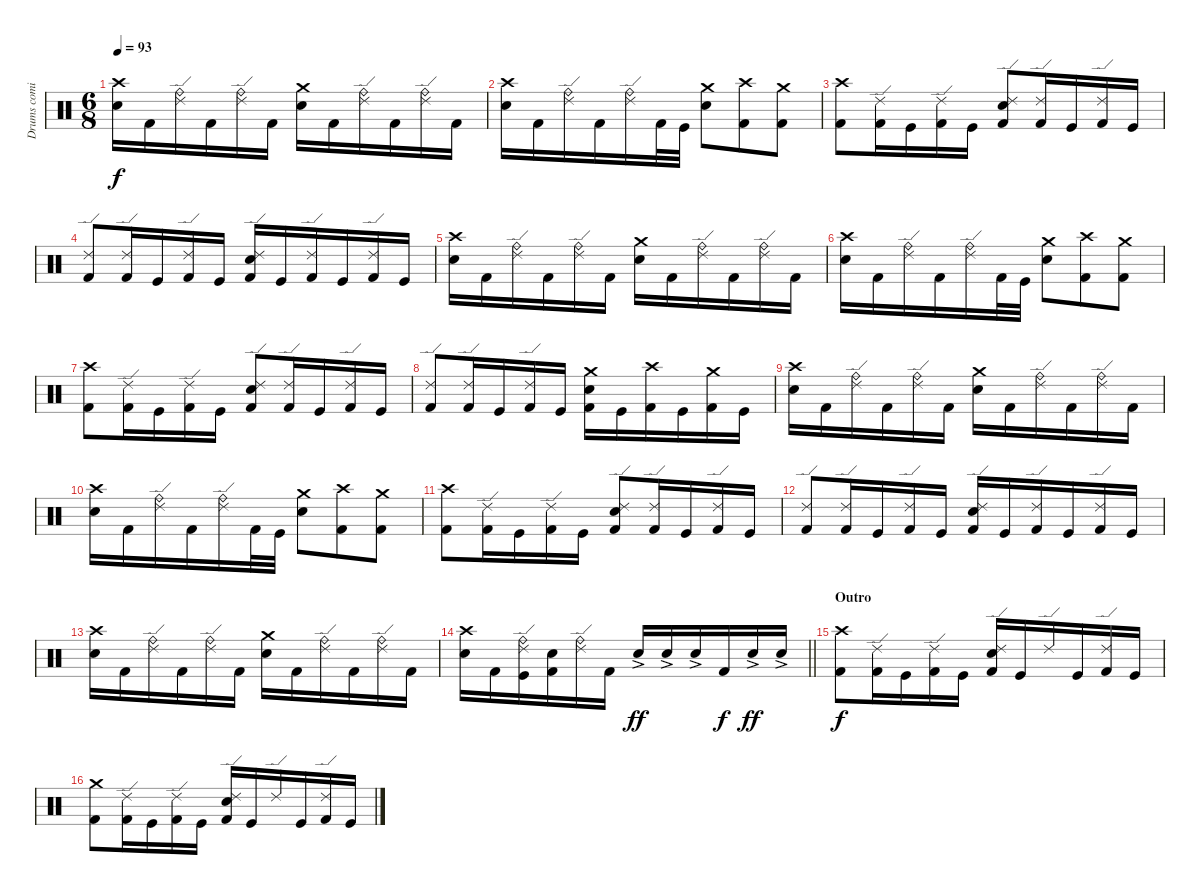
\track ("Drums coming soon" "Drums comi") {instrument percussion}
\staff {score}
\articulation defaults
\ts (6 8)
\tempo 93
\clef neutral
\ks c
("Crash high (hit)" "Snare (hit) 2").16{dy f} "Kick (hit) 2".16 ("Ride (edge) 2" "Ride (bell)").16 "Kick (hit) 2".16 ("Ride (edge) 2" "Ride (bell)").16 "Kick (hit) 2".16 ("Crash medium (hit)" "Snare (hit) 2").16 "Kick (hit) 2".16 ("Ride (edge) 2" "Ride (bell)").16 "Kick (hit) 2".16 ("Ride (edge) 2" "Ride (bell)").16 "Kick (hit) 2".16 |
("Crash high (hit)" "Snare (hit) 2").16 "Kick (hit) 2".16 ("Ride (edge) 2" "Ride (bell)").16 "Kick (hit) 2".16 ("Ride (edge) 2" "Ride (bell)").16 "Kick (hit) 2".32 "Kick (hit)".32 ("Crash medium (hit)" "Snare (hit) 2").8 ("Crash high (hit)" "Kick (hit) 2").8 ("Crash medium (hit)" "Kick (hit) 2").8 |
("Crash high (hit)" "Kick (hit) 2").8 ("Ride (edge) 2" "Kick (hit) 2").16 "Kick (hit)".16 ("Ride (edge) 2" "Kick (hit) 2").16 "Kick (hit)".16 ("Ride (edge) 2" "Snare (hit) 2" "Kick (hit) 2").8 ("Ride (edge) 2" "Kick (hit) 2").16 "Kick (hit)".16 ("Ride (edge) 2" "Kick (hit) 2").16 "Kick (hit)".16 |
("Ride (edge) 2" "Kick (hit) 2").8 ("Ride (edge) 2" "Kick (hit) 2").16 "Kick (hit)".16 ("Ride (edge) 2" "Kick (hit) 2").16 "Kick (hit)".16 ("Ride (edge) 2" "Snare (hit) 2" "Kick (hit) 2").16 "Kick (hit)".16 ("Ride (edge) 2" "Kick (hit) 2").16 "Kick (hit)".16 ("Ride (edge) 2" "Kick (hit) 2").16 "Kick (hit)".16 |
("Crash high (hit)" "Snare (hit) 2").16 "Kick (hit) 2".16 ("Ride (edge) 2" "Ride (bell)").16 "Kick (hit) 2".16 ("Ride (edge) 2" "Ride (bell)").16 "Kick (hit) 2".16 ("Crash medium (hit)" "Snare (hit) 2").16 "Kick (hit) 2".16 ("Ride (edge) 2" "Ride (bell)").16 "Kick (hit) 2".16 ("Ride (edge) 2" "Ride (bell)").16 "Kick (hit) 2".16 |
("Crash high (hit)" "Snare (hit) 2").16 "Kick (hit) 2".16 ("Ride (edge) 2" "Ride (bell)").16 "Kick (hit) 2".16 ("Ride (edge) 2" "Ride (bell)").16 "Kick (hit) 2".32 "Kick (hit)".32 ("Crash medium (hit)" "Snare (hit) 2").8 ("Crash high (hit)" "Kick (hit) 2").8 ("Crash medium (hit)" "Kick (hit) 2").8 |
("Crash high (hit)" "Kick (hit) 2").8 ("Ride (edge) 2" "Kick (hit) 2").16 "Kick (hit)".16 ("Ride (edge) 2" "Kick (hit) 2").16 "Kick (hit)".16 ("Ride (edge) 2" "Snare (hit) 2" "Kick (hit) 2").8 ("Ride (edge) 2" "Kick (hit) 2").16 "Kick (hit)".16 ("Ride (edge) 2" "Kick (hit) 2").16 "Kick (hit)".16 |
("Ride (edge) 2" "Kick (hit) 2").8 ("Ride (edge) 2" "Kick (hit) 2").16 "Kick (hit)".16 ("Ride (edge) 2" "Kick (hit) 2").16 "Kick (hit)".16 ("Crash medium (hit)" "Snare (hit) 2" "Kick (hit) 2").16 "Kick (hit)".16 ("Crash high (hit)" "Kick (hit) 2").16 "Kick (hit)".16 ("Crash medium (hit)" "Kick (hit) 2").16 "Kick (hit)".16 |
("Crash high (hit)" "Snare (hit) 2").16 "Kick (hit) 2".16 ("Ride (edge) 2" "Ride (bell)").16 "Kick (hit) 2".16 ("Ride (edge) 2" "Ride (bell)").16 "Kick (hit) 2".16 ("Crash medium (hit)" "Snare (hit) 2").16 "Kick (hit) 2".16 ("Ride (edge) 2" "Ride (bell)").16 "Kick (hit) 2".16 ("Ride (edge) 2" "Ride (bell)").16 "Kick (hit) 2".16 |
("Crash high (hit)" "Snare (hit) 2").16 "Kick (hit) 2".16 ("Ride (edge) 2" "Ride (bell)").16 "Kick (hit) 2".16 ("Ride (edge) 2" "Ride (bell)").16 "Kick (hit) 2".32 "Kick (hit)".32 ("Crash medium (hit)" "Snare (hit) 2").8 ("Crash high (hit)" "Kick (hit) 2").8 ("Crash medium (hit)" "Kick (hit) 2").8 |
("Crash high (hit)" "Kick (hit) 2").8 ("Ride (edge) 2" "Kick (hit) 2").16 "Kick (hit)".16 ("Ride (edge) 2" "Kick (hit) 2").16 "Kick (hit)".16 ("Ride (edge) 2" "Snare (hit) 2" "Kick (hit) 2").8 ("Ride (edge) 2" "Kick (hit) 2").16 "Kick (hit)".16 ("Ride (edge) 2" "Kick (hit) 2").16 "Kick (hit)".16 |
("Ride (edge) 2" "Kick (hit) 2").8 ("Ride (edge) 2" "Kick (hit) 2").16 "Kick (hit)".16 ("Ride (edge) 2" "Kick (hit) 2").16 "Kick (hit)".16 ("Ride (edge) 2" "Snare (hit) 2" "Kick (hit) 2").16 "Kick (hit)".16 ("Ride (edge) 2" "Kick (hit) 2").16 "Kick (hit)".16 ("Ride (edge) 2" "Kick (hit) 2").16 "Kick (hit)".16 |
("Crash high (hit)" "Snare (hit) 2").16 "Kick (hit) 2".16 ("Ride (edge) 2" "Ride (bell)").16 "Kick (hit) 2".16 ("Ride (edge) 2" "Ride (bell)").16 "Kick (hit) 2".16 ("Crash medium (hit)" "Snare (hit) 2").16 "Kick (hit) 2".16 ("Ride (edge) 2" "Ride (bell)").16 "Kick (hit) 2".16 ("Ride (edge) 2" "Ride (bell)").16 "Kick (hit) 2".16 |
\barLineRight lightlight
("Crash high (hit)" "Snare (hit) 2").16 "Kick (hit) 2".16 ("Ride (edge) 2" "Ride (bell)" "Kick (hit)").16 ("Snare (hit) 2" "Kick (hit) 2").16 ("Ride (edge) 2" "Ride (bell)").16 "Kick (hit) 2".16 "Snare (hit) 2"{ac}.16{dy ff} "Snare (hit) 2"{ac}.16 "Snare (hit) 2"{ac}.16 "Kick (hit) 2".16{dy f} "Snare (hit) 2"{ac}.16{dy ff} "Snare (hit) 2"{ac}.16 |
\section ("" "Outro")
("Crash high (hit)" "Kick (hit) 2").8{dy f} ("Ride (edge) 2" "Kick (hit) 2").16 "Kick (hit)".16 ("Ride (edge) 2" "Kick (hit) 2").16 "Kick (hit)".16 ("Ride (edge) 2" "Snare (hit) 2" "Kick (hit) 2").16 "Kick (hit)".16 "Ride (edge) 2".16 "Kick (hit)".16 ("Ride (edge) 2" "Kick (hit) 2").16 "Kick (hit)".16 |
("Crash medium (hit)" "Kick (hit) 2").8 ("Ride (edge) 2" "Kick (hit) 2").16 "Kick (hit)".16 ("Ride (edge) 2" "Kick (hit) 2").16 "Kick (hit)".16 ("Ride (edge) 2" "Snare (hit) 2" "Kick (hit) 2").16 "Kick (hit)".16 "Ride (edge) 2".16 "Kick (hit)".16 ("Ride (edge) 2" "Kick (hit) 2").16 "Kick (hit)".16
